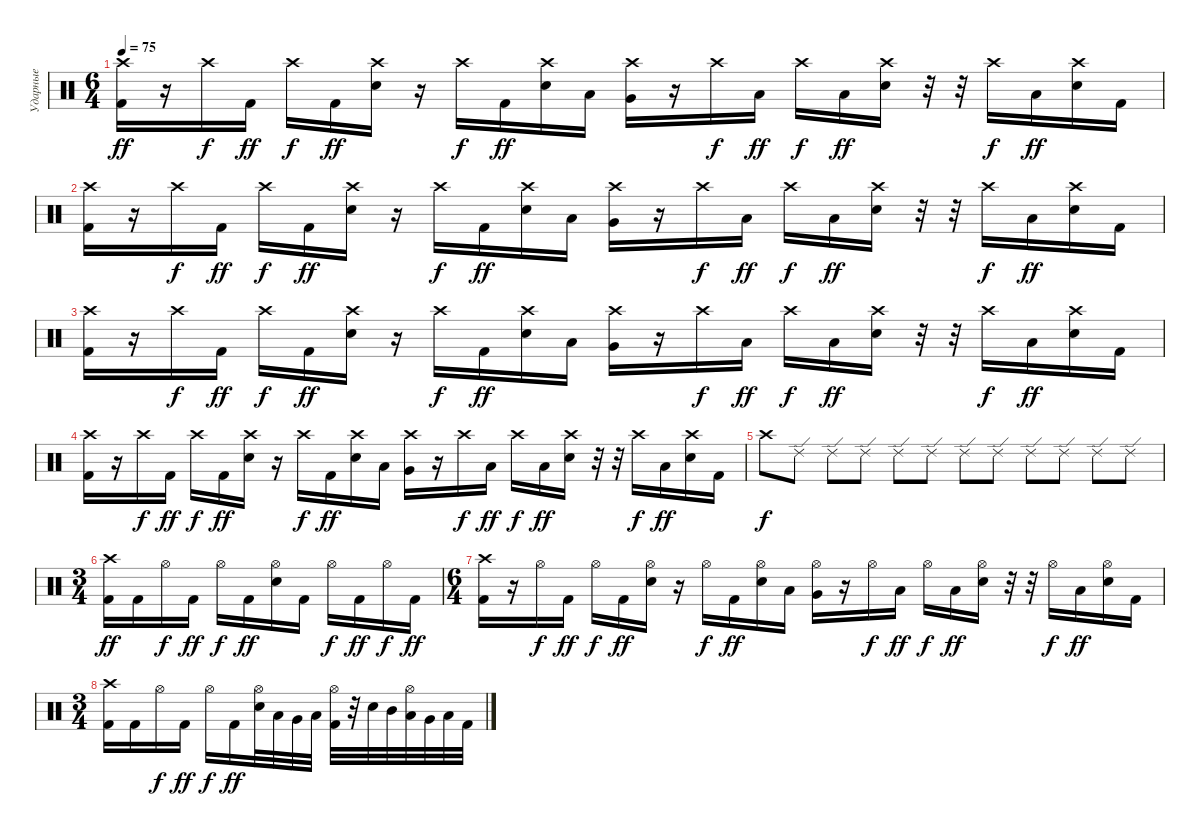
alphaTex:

\track ("Ударные" "Ударные") {instrument percussion}
\staff {score}
\articulation defaults
\ts (6 4)
\tempo 75
\clef neutral
\ks c
("Crash high (hit)" "Kick (hit) 2").16{dy ff} r.16 "Crash high (hit)".16{dy f} "Kick (hit) 2".16{dy ff} "Crash high (hit)".16{dy f} "Kick (hit) 2".16{dy ff} ("Crash high (hit)" "Snare (hit) 2").16 r.16 "Crash high (hit)".16{dy f} "Kick (hit) 2".16{dy ff} ("Crash high (hit)" "Snare (hit) 2").16 "Low Floor Tom (hit)".16 ("Crash high (hit)" "Very Low Tom (hit)").16 r.16 "Crash high (hit)".16{dy f} "Low Floor Tom (hit)".16{dy ff} "Crash high (hit)".16{dy f} "Low Floor Tom (hit)".16{dy ff} ("Crash high (hit)" "Snare (hit) 2").16 r.32 r.32 "Crash high (hit)".16{dy f} "Low Floor Tom (hit)".16{dy ff} ("Crash high (hit)" "Snare (hit) 2").16 "Kick (hit) 2".16 |
("Crash high (hit)" "Kick (hit) 2").16 r.16 "Crash high (hit)".16{dy f} "Kick (hit) 2".16{dy ff} "Crash high (hit)".16{dy f} "Kick (hit) 2".16{dy ff} ("Crash high (hit)" "Snare (hit) 2").16 r.16 "Crash high (hit)".16{dy f} "Kick (hit) 2".16{dy ff} ("Crash high (hit)" "Snare (hit) 2").16 "Low Floor Tom (hit)".16 ("Crash high (hit)" "Very Low Tom (hit)").16 r.16 "Crash high (hit)".16{dy f} "Low Floor Tom (hit)".16{dy ff} "Crash high (hit)".16{dy f} "Low Floor Tom (hit)".16{dy ff} ("Crash high (hit)" "Snare (hit) 2").16 r.32 r.32 "Crash high (hit)".16{dy f} "Low Floor Tom (hit)".16{dy ff} ("Crash high (hit)" "Snare (hit) 2").16 "Kick (hit) 2".16 |
("Crash high (hit)" "Kick (hit) 2").16 r.16 "Crash high (hit)".16{dy f} "Kick (hit) 2".16{dy ff} "Crash high (hit)".16{dy f} "Kick (hit) 2".16{dy ff} ("Crash high (hit)" "Snare (hit) 2").16 r.16 "Crash high (hit)".16{dy f} "Kick (hit) 2".16{dy ff} ("Crash high (hit)" "Snare (hit) 2").16 "Low Floor Tom (hit)".16 ("Crash high (hit)" "Very Low Tom (hit)").16 r.16 "Crash high (hit)".16{dy f} "Low Floor Tom (hit)".16{dy ff} "Crash high (hit)".16{dy f} "Low Floor Tom (hit)".16{dy ff} ("Crash high (hit)" "Snare (hit) 2").16 r.32 r.32 "Crash high (hit)".16{dy f} "Low Floor Tom (hit)".16{dy ff} ("Crash high (hit)" "Snare (hit) 2").16 "Kick (hit) 2".16 |
("Crash high (hit)" "Kick (hit) 2").16 r.16 "Crash high (hit)".16{dy f} "Kick (hit) 2".16{dy ff} "Crash high (hit)".16{dy f} "Kick (hit) 2".16{dy ff} ("Crash high (hit)" "Snare (hit) 2").16 r.16 "Crash high (hit)".16{dy f} "Kick (hit) 2".16{dy ff} ("Crash high (hit)" "Snare (hit) 2").16 "Low Floor Tom (hit)".16 ("Crash high (hit)" "Very Low Tom (hit)").16 r.16 "Crash high (hit)".16{dy f} "Low Floor Tom (hit)".16{dy ff} "Crash high (hit)".16{dy f} "Low Floor Tom (hit)".16{dy ff} ("Crash high (hit)" "Snare (hit) 2").16 r.32 r.32 "Crash high (hit)".16{dy f} "Low Floor Tom (hit)".16{dy ff} ("Crash high (hit)" "Snare (hit) 2").16 "Kick (hit) 2".16 |
"Crash high (hit)".8{dy f} "Ride (edge) 2".8 "Ride (edge) 2".8 "Ride (edge) 2".8 "Ride (edge) 2".8 "Ride (edge) 2".8 "Ride (edge) 2".8 "Ride (edge) 2".8 "Ride (edge) 2".8 "Ride (edge) 2".8 "Ride (edge) 2".8 "Ride (edge) 2".8 |
\ts (3 4)
("Crash high (hit)" "Kick (hit) 2").16{dy ff} "Kick (hit) 2".16 "Hi-Hat (open)".16{dy f} "Kick (hit) 2".16{dy ff} "Hi-Hat (open)".16{dy f} "Kick (hit) 2".16{dy ff} ("Hi-Hat (open)" "Snare (hit) 2").16 "Kick (hit) 2".16 "Hi-Hat (open)".16{dy f} "Kick (hit) 2".16{dy ff} "Hi-Hat (open)".16{dy f} "Kick (hit) 2".16{dy ff} |
\ts (6 4)
("Crash high (hit)" "Kick (hit) 2").16 r.16 "Hi-Hat (open)".16{dy f} "Kick (hit) 2".16{dy ff} "Hi-Hat (open)".16{dy f} "Kick (hit) 2".16{dy ff} ("Hi-Hat (open)" "Snare (hit) 2").16 r.16 "Hi-Hat (open)".16{dy f} "Kick (hit) 2".16{dy ff} ("Hi-Hat (open)" "Snare (hit) 2").16 "Low Floor Tom (hit)".16 ("Hi-Hat (open)" "Very Low Tom (hit)").16 r.16 "Hi-Hat (open)".16{dy f} "Low Floor Tom (hit)".16{dy ff} "Hi-Hat (open)".16{dy f} "Low Floor Tom (hit)".16{dy ff} ("Hi-Hat (open)" "Snare (hit) 2").16 r.32 r.32 "Hi-Hat (open)".16{dy f} "Low Floor Tom (hit)".16{dy ff} ("Hi-Hat (open)" "Snare (hit) 2").16 "Kick (hit) 2".16 |
\ts (3 4)
("Crash high (hit)" "Kick (hit) 2").16 "Kick (hit) 2".16 "Hi-Hat (open)".16{dy f} "Kick (hit) 2".16{dy ff} "Hi-Hat (open)".16{dy f} "Kick (hit) 2".16{dy ff} ("Hi-Hat (open)" "Snare (hit) 2").32 "Low Tom (hit)".32 "Very Low Tom (hit)".32 "Low Floor Tom (hit)".32 ("Hi-Hat (open)" "Kick (hit) 2").32 r.32 "Snare (hit) 2".32 "Mid Tom (hit)".32 ("Hi-Hat (open)" "Low Tom (hit)").32 "Very Low Tom (hit)".32 "Low Floor Tom (hit)".32 "Kick (hit) 2".32
